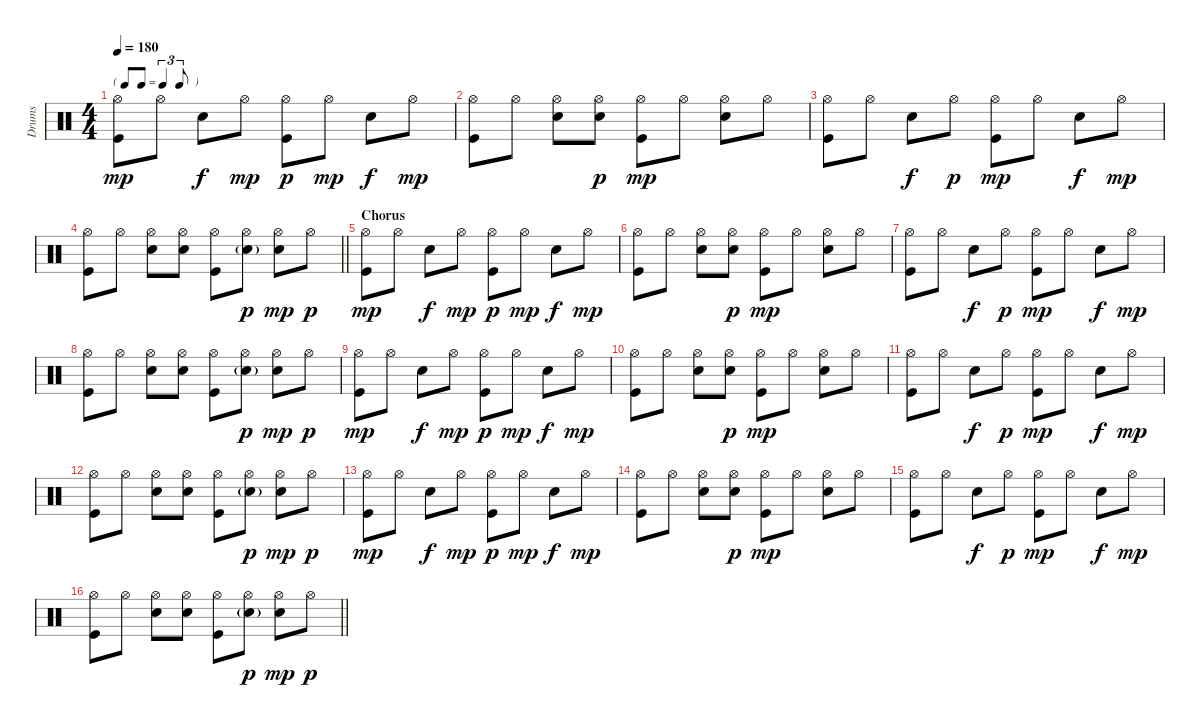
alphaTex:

\track ("Drums" "Drums") {instrument percussion}
\staff {score}
\articulation defaults
\ts (4 4)
\tf triplet8th
\tempo 180
\clef neutral
\ks c
("Hi-Hat (open)" "Kick (hit)").8{dy mp} "Hi-Hat (open)".8 "Electric Snare (hit)".8{dy f} "Hi-Hat (open)".8{dy mp} ("Hi-Hat (open)" "Kick (hit)").8{dy p} "Hi-Hat (open)".8{dy mp} "Electric Snare (hit)".8{dy f} "Hi-Hat (open)".8{dy mp} |
("Hi-Hat (open)" "Kick (hit)").8 "Hi-Hat (open)".8 ("Hi-Hat (open)" "Electric Snare (hit)").8 ("Electric Snare (hit)" "Hi-Hat (open)").8{dy p} ("Hi-Hat (open)" "Kick (hit)").8{dy mp} "Hi-Hat (open)".8 ("Hi-Hat (open)" "Electric Snare (hit)").8 "Hi-Hat (open)".8 |
("Hi-Hat (open)" "Kick (hit)").8 "Hi-Hat (open)".8 "Electric Snare (hit)".8{dy f} "Hi-Hat (open)".8{dy p} ("Hi-Hat (open)" "Kick (hit)").8{dy mp} "Hi-Hat (open)".8 "Electric Snare (hit)".8{dy f} "Hi-Hat (open)".8{dy mp} |
\barLineRight lightlight
("Hi-Hat (open)" "Kick (hit)").8 "Hi-Hat (open)".8 ("Hi-Hat (open)" "Electric Snare (hit)").8 ("Electric Snare (hit)" "Hi-Hat (open)").8 ("Hi-Hat (open)" "Kick (hit)").8 ("Electric Snare (hit)"{g} "Hi-Hat (open)").8{dy p} ("Hi-Hat (open)" "Electric Snare (hit)").8{dy mp} "Hi-Hat (open)".8{dy p} |
\section ("" "Chorus")
("Hi-Hat (open)" "Kick (hit)").8{dy mp} "Hi-Hat (open)".8 "Electric Snare (hit)".8{dy f} "Hi-Hat (open)".8{dy mp} ("Hi-Hat (open)" "Kick (hit)").8{dy p} "Hi-Hat (open)".8{dy mp} "Electric Snare (hit)".8{dy f} "Hi-Hat (open)".8{dy mp} |
("Hi-Hat (open)" "Kick (hit)").8 "Hi-Hat (open)".8 ("Hi-Hat (open)" "Electric Snare (hit)").8 ("Electric Snare (hit)" "Hi-Hat (open)").8{dy p} ("Hi-Hat (open)" "Kick (hit)").8{dy mp} "Hi-Hat (open)".8 ("Hi-Hat (open)" "Electric Snare (hit)").8 "Hi-Hat (open)".8 |
("Hi-Hat (open)" "Kick (hit)").8 "Hi-Hat (open)".8 "Electric Snare (hit)".8{dy f} "Hi-Hat (open)".8{dy p} ("Hi-Hat (open)" "Kick (hit)").8{dy mp} "Hi-Hat (open)".8 "Electric Snare (hit)".8{dy f} "Hi-Hat (open)".8{dy mp} |
("Hi-Hat (open)" "Kick (hit)").8 "Hi-Hat (open)".8 ("Hi-Hat (open)" "Electric Snare (hit)").8 ("Electric Snare (hit)" "Hi-Hat (open)").8 ("Hi-Hat (open)" "Kick (hit)").8 ("Electric Snare (hit)"{g} "Hi-Hat (open)").8{dy p} ("Hi-Hat (open)" "Electric Snare (hit)").8{dy mp} "Hi-Hat (open)".8{dy p} |
("Hi-Hat (open)" "Kick (hit)").8{dy mp} "Hi-Hat (open)".8 "Electric Snare (hit)".8{dy f} "Hi-Hat (open)".8{dy mp} ("Hi-Hat (open)" "Kick (hit)").8{dy p} "Hi-Hat (open)".8{dy mp} "Electric Snare (hit)".8{dy f} "Hi-Hat (open)".8{dy mp} |
("Hi-Hat (open)" "Kick (hit)").8 "Hi-Hat (open)".8 ("Hi-Hat (open)" "Electric Snare (hit)").8 ("Electric Snare (hit)" "Hi-Hat (open)").8{dy p} ("Hi-Hat (open)" "Kick (hit)").8{dy mp} "Hi-Hat (open)".8 ("Hi-Hat (open)" "Electric Snare (hit)").8 "Hi-Hat (open)".8 |
("Hi-Hat (open)" "Kick (hit)").8 "Hi-Hat (open)".8 "Electric Snare (hit)".8{dy f} "Hi-Hat (open)".8{dy p} ("Hi-Hat (open)" "Kick (hit)").8{dy mp} "Hi-Hat (open)".8 "Electric Snare (hit)".8{dy f} "Hi-Hat (open)".8{dy mp} |
("Hi-Hat (open)" "Kick (hit)").8 "Hi-Hat (open)".8 ("Hi-Hat (open)" "Electric Snare (hit)").8 ("Electric Snare (hit)" "Hi-Hat (open)").8 ("Hi-Hat (open)" "Kick (hit)").8 ("Electric Snare (hit)"{g} "Hi-Hat (open)").8{dy p} ("Hi-Hat (open)" "Electric Snare (hit)").8{dy mp} "Hi-Hat (open)".8{dy p} |
("Hi-Hat (open)" "Kick (hit)").8{dy mp} "Hi-Hat (open)".8 "Electric Snare (hit)".8{dy f} "Hi-Hat (open)".8{dy mp} ("Hi-Hat (open)" "Kick (hit)").8{dy p} "Hi-Hat (open)".8{dy mp} "Electric Snare (hit)".8{dy f} "Hi-Hat (open)".8{dy mp} |
("Hi-Hat (open)" "Kick (hit)").8 "Hi-Hat (open)".8 ("Hi-Hat (open)" "Electric Snare (hit)").8 ("Electric Snare (hit)" "Hi-Hat (open)").8{dy p} ("Hi-Hat (open)" "Kick (hit)").8{dy mp} "Hi-Hat (open)".8 ("Hi-Hat (open)" "Electric Snare (hit)").8 "Hi-Hat (open)".8 |
("Hi-Hat (open)" "Kick (hit)").8 "Hi-Hat (open)".8 "Electric Snare (hit)".8{dy f} "Hi-Hat (open)".8{dy p} ("Hi-Hat (open)" "Kick (hit)").8{dy mp} "Hi-Hat (open)".8 "Electric Snare (hit)".8{dy f} "Hi-Hat (open)".8{dy mp} |
\barLineRight lightlight
("Hi-Hat (open)" "Kick (hit)").8 "Hi-Hat (open)".8 ("Hi-Hat (open)" "Electric Snare (hit)").8 ("Electric Snare (hit)" "Hi-Hat (open)").8 ("Hi-Hat (open)" "Kick (hit)").8 ("Electric Snare (hit)"{g} "Hi-Hat (open)").8{dy p} ("Hi-Hat (open)" "Electric Snare (hit)").8{dy mp} "Hi-Hat (open)".8{dy p}
